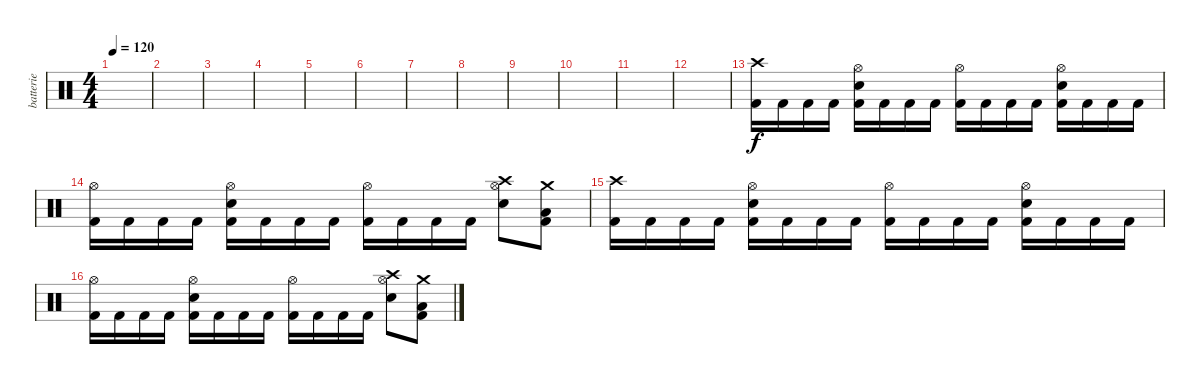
\track ("batterie" "batterie") {instrument percussion}
\staff {score}
\articulation defaults
\ts (4 4)
\tempo 120
\clef neutral
\ks c
|
|
|
|
|
|
|
|
|
|
|
|
("Crash high (hit)" "Kick (hit) 2").16 "Kick (hit) 2".16 "Kick (hit) 2".16 "Kick (hit) 2".16 ("Snare (hit) 2" "Kick (hit) 2" "Hi-Hat (open)").16 "Kick (hit) 2".16 "Kick (hit) 2".16 "Kick (hit) 2".16 ("Kick (hit) 2" "Hi-Hat (open)").16 "Kick (hit) 2".16 "Kick (hit) 2".16 "Kick (hit) 2".16 ("Snare (hit) 2" "Kick (hit) 2" "Hi-Hat (open)").16 "Kick (hit) 2".16 "Kick (hit) 2".16 "Kick (hit) 2".16 |
("Kick (hit) 2" "Hi-Hat (open)").16 "Kick (hit) 2".16 "Kick (hit) 2".16 "Kick (hit) 2".16 ("Snare (hit) 2" "Kick (hit) 2" "Hi-Hat (open)").16 "Kick (hit) 2".16 "Kick (hit) 2".16 "Kick (hit) 2".16 ("Kick (hit) 2" "Hi-Hat (open)").16 "Kick (hit) 2".16 "Kick (hit) 2".16 "Kick (hit) 2".16 ("Crash high (hit)" "Snare (hit) 2" "Hi-Hat (open)").8 ("Crash medium (hit)" "Low Tom (hit)" "Kick (hit) 2").8 |
("Crash high (hit)" "Kick (hit) 2").16 "Kick (hit) 2".16 "Kick (hit) 2".16 "Kick (hit) 2".16 ("Snare (hit) 2" "Kick (hit) 2" "Hi-Hat (open)").16 "Kick (hit) 2".16 "Kick (hit) 2".16 "Kick (hit) 2".16 ("Kick (hit) 2" "Hi-Hat (open)").16 "Kick (hit) 2".16 "Kick (hit) 2".16 "Kick (hit) 2".16 ("Snare (hit) 2" "Kick (hit) 2" "Hi-Hat (open)").16 "Kick (hit) 2".16 "Kick (hit) 2".16 "Kick (hit) 2".16 |
("Kick (hit) 2" "Hi-Hat (open)").16 "Kick (hit) 2".16 "Kick (hit) 2".16 "Kick (hit) 2".16 ("Snare (hit) 2" "Kick (hit) 2" "Hi-Hat (open)").16 "Kick (hit) 2".16 "Kick (hit) 2".16 "Kick (hit) 2".16 ("Kick (hit) 2" "Hi-Hat (open)").16 "Kick (hit) 2".16 "Kick (hit) 2".16 "Kick (hit) 2".16 ("Crash high (hit)" "Snare (hit) 2" "Hi-Hat (open)").8 ("Crash medium (hit)" "Low Tom (hit)" "Kick (hit) 2").8
